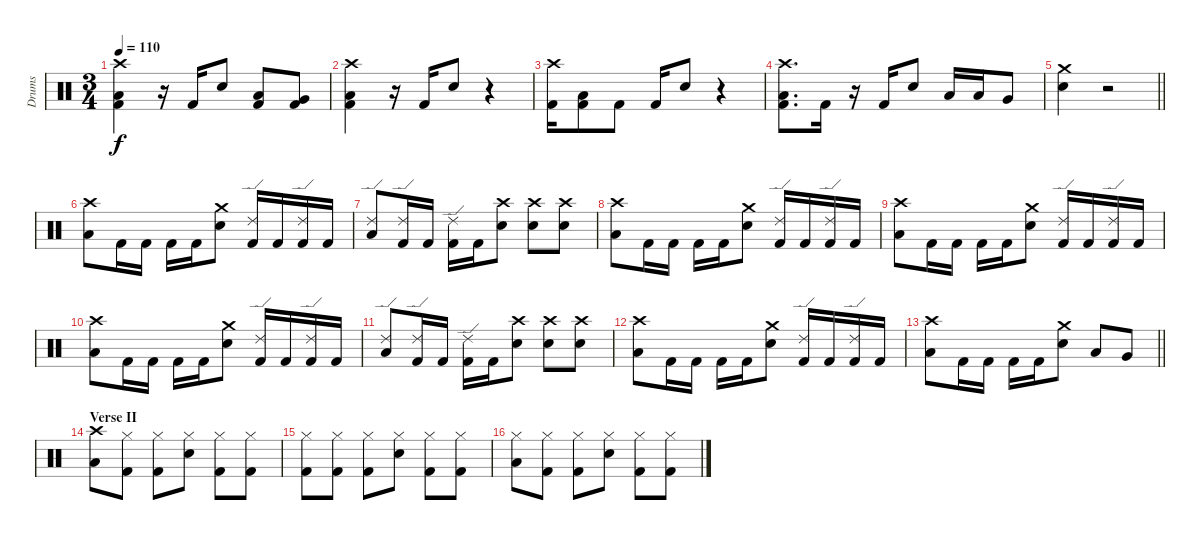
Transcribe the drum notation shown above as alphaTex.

\track ("Drums" "Drums") {instrument percussion}
\staff {score}
\articulation defaults
\ts (3 4)
\tempo 110
\clef neutral
\ks c
("Crash high (hit)" "Low Floor Tom (hit)" "Kick (hit) 2").4{dy f} r.16 "Kick (hit) 2".16 "Snare (hit) 2".8 ("Low Tom (hit)" "Kick (hit) 2").8 ("Very Low Tom (hit)" "Kick (hit) 2").8 |
("Crash high (hit)" "Low Floor Tom (hit)" "Kick (hit) 2").4 r.16 "Kick (hit) 2".16 "Snare (hit) 2".8 r.4 |
("Crash high (hit)" "Kick (hit) 2").16 ("Low Floor Tom (hit)" "Kick (hit) 2").8 "Kick (hit) 2".8 "Kick (hit) 2".16 "Snare (hit) 2".8 r.4 |
("Crash high (hit)" "Low Floor Tom (hit)" "Kick (hit) 2").8{d} "Kick (hit) 2".16 r.16 "Kick (hit) 2".16 "Snare (hit) 2".8 "Low Tom (hit)".16 "Low Tom (hit)".16 "Very Low Tom (hit)".8 |
\barLineRight lightlight
("Crash medium (hit)" "Snare (hit) 2").4 r.2 |
("Crash high (hit)" "Low Floor Tom (hit)").8 "Kick (hit) 2".16 "Kick (hit) 2".16 "Kick (hit) 2".16 "Kick (hit) 2".16 ("Crash medium (hit)" "Snare (hit) 2").8 ("Ride (edge) 2" "Kick (hit) 2").16 "Kick (hit) 2".16 ("Ride (edge) 2" "Kick (hit) 2").16 "Kick (hit) 2".16 |
("Ride (edge) 2" "Low Floor Tom (hit)").8 ("Ride (edge) 2" "Kick (hit) 2").16 "Kick (hit) 2".16 ("Ride (edge) 2" "Kick (hit) 2").16 "Kick (hit) 2".16 ("Crash high (hit)" "Snare (hit) 2").8 ("Crash high (hit)" "Snare (hit) 2").8 ("Crash high (hit)" "Snare (hit) 2").8 |
("Crash high (hit)" "Low Floor Tom (hit)").8 "Kick (hit) 2".16 "Kick (hit) 2".16 "Kick (hit) 2".16 "Kick (hit) 2".16 ("Crash medium (hit)" "Snare (hit) 2").8 ("Ride (edge) 2" "Kick (hit) 2").16 "Kick (hit) 2".16 ("Ride (edge) 2" "Kick (hit) 2").16 "Kick (hit) 2".16 |
("Crash high (hit)" "Low Floor Tom (hit)").8 "Kick (hit) 2".16 "Kick (hit) 2".16 "Kick (hit) 2".16 "Kick (hit) 2".16 ("Crash medium (hit)" "Snare (hit) 2").8 ("Ride (edge) 2" "Kick (hit) 2").16 "Kick (hit) 2".16 ("Ride (edge) 2" "Kick (hit) 2").16 "Kick (hit) 2".16 |
("Crash high (hit)" "Low Floor Tom (hit)").8 "Kick (hit) 2".16 "Kick (hit) 2".16 "Kick (hit) 2".16 "Kick (hit) 2".16 ("Crash medium (hit)" "Snare (hit) 2").8 ("Ride (edge) 2" "Kick (hit) 2").16 "Kick (hit) 2".16 ("Ride (edge) 2" "Kick (hit) 2").16 "Kick (hit) 2".16 |
("Ride (edge) 2" "Low Floor Tom (hit)").8 ("Ride (edge) 2" "Kick (hit) 2").16 "Kick (hit) 2".16 ("Ride (edge) 2" "Kick (hit) 2").16 "Kick (hit) 2".16 ("Crash high (hit)" "Snare (hit) 2").8 ("Crash high (hit)" "Snare (hit) 2").8 ("Crash high (hit)" "Snare (hit) 2").8 |
("Crash high (hit)" "Low Floor Tom (hit)").8 "Kick (hit) 2".16 "Kick (hit) 2".16 "Kick (hit) 2".16 "Kick (hit) 2".16 ("Crash medium (hit)" "Snare (hit) 2").8 ("Ride (edge) 2" "Kick (hit) 2").16 "Kick (hit) 2".16 ("Ride (edge) 2" "Kick (hit) 2").16 "Kick (hit) 2".16 |
\barLineRight lightlight
("Crash high (hit)" "Low Floor Tom (hit)").8 "Kick (hit) 2".16 "Kick (hit) 2".16 "Kick (hit) 2".16 "Kick (hit) 2".16 ("Crash medium (hit)" "Snare (hit) 2").8 "Low Tom (hit)".8 "Very Low Tom (hit)".8 |
\section ("" "Verse II")
("Crash high (hit)" "Low Floor Tom (hit)").8 ("Hi-Hat (closed)" "Kick (hit) 2").8 ("Hi-Hat (closed)" "Kick (hit) 2").8 ("Hi-Hat (closed)" "Snare (hit) 2").8 ("Hi-Hat (closed)" "Kick (hit) 2").8 ("Hi-Hat (closed)" "Kick (hit) 2").8 |
("Hi-Hat (closed)" "Kick (hit) 2").8 ("Hi-Hat (closed)" "Kick (hit) 2").8 ("Hi-Hat (closed)" "Kick (hit) 2").8 ("Hi-Hat (closed)" "Snare (hit) 2").8 ("Hi-Hat (closed)" "Kick (hit) 2").8 ("Hi-Hat (closed)" "Kick (hit) 2").8 |
("Hi-Hat (closed)" "Low Floor Tom (hit)").8 ("Hi-Hat (closed)" "Kick (hit) 2").8 ("Hi-Hat (closed)" "Kick (hit) 2").8 ("Hi-Hat (closed)" "Snare (hit) 2").8 ("Hi-Hat (closed)" "Kick (hit) 2").8 ("Hi-Hat (closed)" "Kick (hit) 2").8
